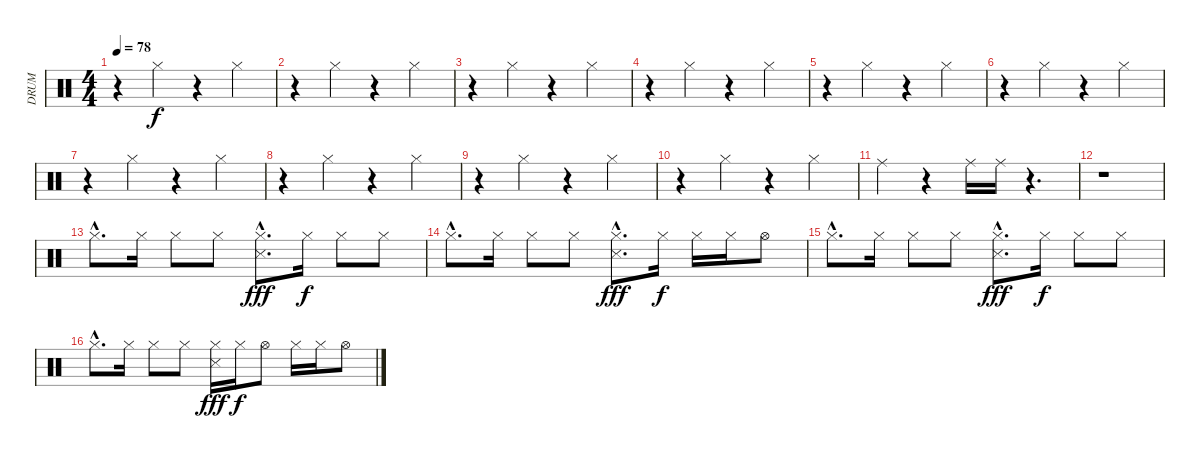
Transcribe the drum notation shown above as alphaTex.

\track ("DRUM" "DRUM") {instrument percussion}
\staff {score}
\articulation defaults
\ts (4 4)
\tempo 78
\clef neutral
\ks c
r.4{dy f} "Hi-Hat (closed)".4 r.4 "Hi-Hat (closed)".4 |
r.4 "Hi-Hat (closed)".4 r.4 "Hi-Hat (closed)".4 |
r.4 "Hi-Hat (closed)".4 r.4 "Hi-Hat (closed)".4 |
r.4 "Hi-Hat (closed)".4 r.4 "Hi-Hat (closed)".4 |
r.4 "Hi-Hat (closed)".4 r.4 "Hi-Hat (closed)".4 |
r.4 "Hi-Hat (closed)".4 r.4 "Hi-Hat (closed)".4 |
r.4 "Hi-Hat (closed)".4 r.4 "Hi-Hat (closed)".4 |
r.4 "Hi-Hat (closed)".4 r.4 "Hi-Hat (closed)".4 |
r.4 "Hi-Hat (closed)".4 r.4 "Hi-Hat (closed)".4 |
r.4 "Hi-Hat (closed)".4 r.4 "Hi-Hat (closed)".4 |
"Ride (middle)".4 r.4 "Ride (middle)".16 "Ride (middle)".16 r.4{d} |
r.1 |
"Hi-Hat (closed)"{hac}.8{d} "Hi-Hat (closed)".16 "Hi-Hat (closed)".8 "Hi-Hat (closed)".8 ("Hi-Hat (closed)"{hac} "Snare (side stick) 3"{hac}).8{d dy fff} "Hi-Hat (closed)".16{dy f} "Hi-Hat (closed)".8 "Hi-Hat (closed)".8 |
"Hi-Hat (closed)"{hac}.8{d} "Hi-Hat (closed)".16 "Hi-Hat (closed)".8 "Hi-Hat (closed)".8 ("Hi-Hat (closed)"{hac} "Snare (side stick) 3"{hac}).8{d dy fff} "Hi-Hat (closed)".16{dy f} "Hi-Hat (closed)".16 "Hi-Hat (closed)".16 "Hi-Hat (open)".8 |
"Hi-Hat (closed)"{hac}.8{d} "Hi-Hat (closed)".16 "Hi-Hat (closed)".8 "Hi-Hat (closed)".8 ("Hi-Hat (closed)"{hac} "Snare (side stick) 3"{hac}).8{d dy fff} "Hi-Hat (closed)".16{dy f} "Hi-Hat (closed)".8 "Hi-Hat (closed)".8 |
"Hi-Hat (closed)"{hac}.8{d} "Hi-Hat (closed)".16 "Hi-Hat (closed)".8 "Hi-Hat (closed)".8 ("Hi-Hat (closed)" "Snare (side stick) 3").16{dy fff} "Hi-Hat (closed)".16{dy f} "Hi-Hat (open)".8 "Hi-Hat (closed)".16 "Hi-Hat (closed)".16 "Hi-Hat (open)".8
